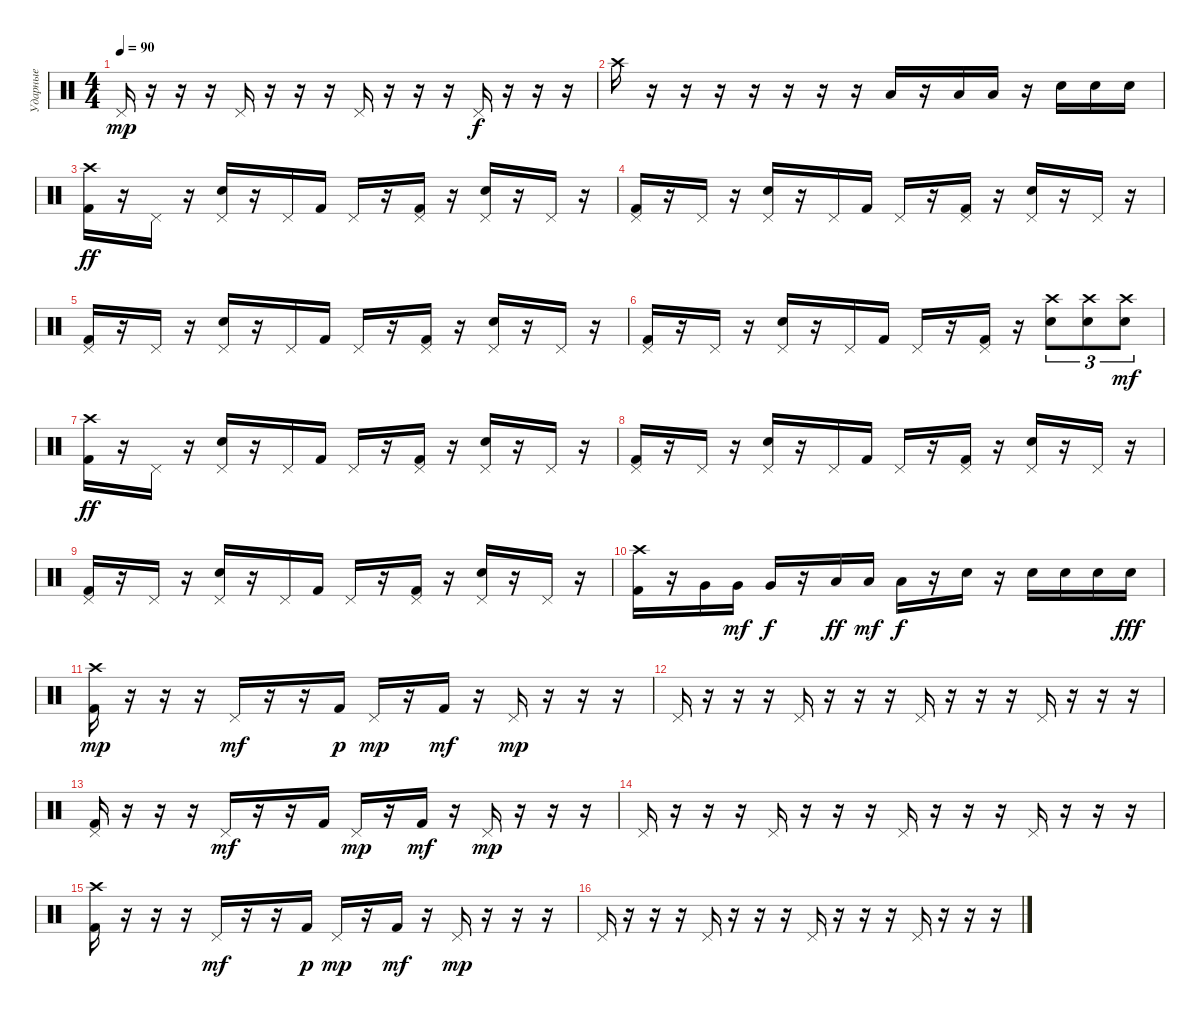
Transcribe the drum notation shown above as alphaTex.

\track ("Ударные" "Ударные") {instrument percussion}
\staff {score}
\articulation defaults
\ts (4 4)
\tempo 90
\clef neutral
\ks aminor "Pedal Hi-Hat (hit)".16{dy mp}
r.16 r.16 r.16 "Pedal Hi-Hat (hit)".16 r.16 r.16 r.16 "Pedal Hi-Hat (hit)".16 r.16 r.16 r.16 "Pedal Hi-Hat (hit)".16{dy f} r.16 r.16 r.16 |
"Crash high (hit)".16 r.16 r.16 r.16 r.16 r.16 r.16 r.16 "Low Tom (hit)".16 r.16 "Low Tom (hit)".16 "Low Tom (hit)".16 r.16 "Electric Snare (hit)".16 "Electric Snare (hit)".16 "Electric Snare (hit)".16 |
("Crash high (hit)" "Kick (hit) 2").16{dy ff} r.16 "Pedal Hi-Hat (hit)".16 r.16 ("Pedal Hi-Hat (hit)" "Electric Snare (hit)").16 r.16 "Pedal Hi-Hat (hit)".16 "Kick (hit) 2".16 "Pedal Hi-Hat (hit)".16 r.16 ("Pedal Hi-Hat (hit)" "Kick (hit) 2").16 r.16 ("Pedal Hi-Hat (hit)" "Electric Snare (hit)").16 r.16 "Pedal Hi-Hat (hit)".16 r.16 |
("Pedal Hi-Hat (hit)" "Kick (hit) 2").16 r.16 "Pedal Hi-Hat (hit)".16 r.16 ("Pedal Hi-Hat (hit)" "Electric Snare (hit)").16 r.16 "Pedal Hi-Hat (hit)".16 "Kick (hit) 2".16 "Pedal Hi-Hat (hit)".16 r.16 ("Pedal Hi-Hat (hit)" "Kick (hit) 2").16 r.16 ("Pedal Hi-Hat (hit)" "Electric Snare (hit)").16 r.16 "Pedal Hi-Hat (hit)".16 r.16 |
("Pedal Hi-Hat (hit)" "Kick (hit) 2").16 r.16 "Pedal Hi-Hat (hit)".16 r.16 ("Pedal Hi-Hat (hit)" "Electric Snare (hit)").16 r.16 "Pedal Hi-Hat (hit)".16 "Kick (hit) 2".16 "Pedal Hi-Hat (hit)".16 r.16 ("Pedal Hi-Hat (hit)" "Kick (hit) 2").16 r.16 ("Pedal Hi-Hat (hit)" "Electric Snare (hit)").16 r.16 "Pedal Hi-Hat (hit)".16 r.16 |
("Pedal Hi-Hat (hit)" "Kick (hit) 2").16 r.16 "Pedal Hi-Hat (hit)".16 r.16 ("Pedal Hi-Hat (hit)" "Electric Snare (hit)").16 r.16 "Pedal Hi-Hat (hit)".16 "Kick (hit) 2".16 "Pedal Hi-Hat (hit)".16 r.16 ("Pedal Hi-Hat (hit)" "Kick (hit) 2").16 r.16 ("Crash high (hit)" "Electric Snare (hit)").8{tu (3 2)} ("Crash high (hit)" "Electric Snare (hit)").8{tu (3 2)} ("Crash high (hit)" "Electric Snare (hit)").8{tu (3 2) dy mf} |
("Crash high (hit)" "Kick (hit) 2").16{dy ff} r.16 "Pedal Hi-Hat (hit)".16 r.16 ("Pedal Hi-Hat (hit)" "Electric Snare (hit)").16 r.16 "Pedal Hi-Hat (hit)".16 "Kick (hit) 2".16 "Pedal Hi-Hat (hit)".16 r.16 ("Pedal Hi-Hat (hit)" "Kick (hit) 2").16 r.16 ("Pedal Hi-Hat (hit)" "Electric Snare (hit)").16 r.16 "Pedal Hi-Hat (hit)".16 r.16 |
("Pedal Hi-Hat (hit)" "Kick (hit) 2").16 r.16 "Pedal Hi-Hat (hit)".16 r.16 ("Pedal Hi-Hat (hit)" "Electric Snare (hit)").16 r.16 "Pedal Hi-Hat (hit)".16 "Kick (hit) 2".16 "Pedal Hi-Hat (hit)".16 r.16 ("Pedal Hi-Hat (hit)" "Kick (hit) 2").16 r.16 ("Pedal Hi-Hat (hit)" "Electric Snare (hit)").16 r.16 "Pedal Hi-Hat (hit)".16 r.16 |
("Pedal Hi-Hat (hit)" "Kick (hit) 2").16 r.16 "Pedal Hi-Hat (hit)".16 r.16 ("Pedal Hi-Hat (hit)" "Electric Snare (hit)").16 r.16 "Pedal Hi-Hat (hit)".16 "Kick (hit) 2".16 "Pedal Hi-Hat (hit)".16 r.16 ("Pedal Hi-Hat (hit)" "Kick (hit) 2").16 r.16 ("Pedal Hi-Hat (hit)" "Electric Snare (hit)").16 r.16 "Pedal Hi-Hat (hit)".16 r.16 |
("Crash high (hit)" "Kick (hit) 2").16 r.16 "Very Low Tom (hit)".16 "Very Low Tom (hit)".16{dy mf} "Very Low Tom (hit)".16{dy f} r.16 "Low Tom (hit)".16{dy ff} "Low Tom (hit)".16{dy mf} "Low Tom (hit)".16{dy f} r.16 "Electric Snare (hit)".16 r.16 "Electric Snare (hit)".16 "Electric Snare (hit)".16 "Electric Snare (hit)".16 "Electric Snare (hit)".16{dy fff} |
("Crash high (hit)" "Kick (hit) 2").16{dy mp} r.16 r.16 r.16 "Pedal Hi-Hat (hit)".16{dy mf} r.16 r.16 "Kick (hit) 2".16{dy p} "Pedal Hi-Hat (hit)".16{dy mp} r.16 "Kick (hit) 2".16{dy mf} r.16 "Pedal Hi-Hat (hit)".16{dy mp} r.16 r.16 r.16 |
"Pedal Hi-Hat (hit)".16 r.16 r.16 r.16 "Pedal Hi-Hat (hit)".16 r.16 r.16 r.16 "Pedal Hi-Hat (hit)".16 r.16 r.16 r.16 "Pedal Hi-Hat (hit)".16 r.16 r.16 r.16 |
("Pedal Hi-Hat (hit)" "Kick (hit) 2").16 r.16 r.16 r.16 "Pedal Hi-Hat (hit)".16{dy mf} r.16 r.16 "Kick (hit) 2".16 "Pedal Hi-Hat (hit)".16{dy mp} r.16 "Kick (hit) 2".16{dy mf} r.16 "Pedal Hi-Hat (hit)".16{dy mp} r.16 r.16 r.16 |
"Pedal Hi-Hat (hit)".16 r.16 r.16 r.16 "Pedal Hi-Hat (hit)".16 r.16 r.16 r.16 "Pedal Hi-Hat (hit)".16 r.16 r.16 r.16 "Pedal Hi-Hat (hit)".16 r.16 r.16 r.16 |
("Crash high (hit)" "Kick (hit) 2").16 r.16 r.16 r.16 "Pedal Hi-Hat (hit)".16{dy mf} r.16 r.16 "Kick (hit) 2".16{dy p} "Pedal Hi-Hat (hit)".16{dy mp} r.16 "Kick (hit) 2".16{dy mf} r.16 "Pedal Hi-Hat (hit)".16{dy mp} r.16 r.16 r.16 |
"Pedal Hi-Hat (hit)".16 r.16 r.16 r.16 "Pedal Hi-Hat (hit)".16 r.16 r.16 r.16 "Pedal Hi-Hat (hit)".16 r.16 r.16 r.16 "Pedal Hi-Hat (hit)".16 r.16 r.16 r.16
